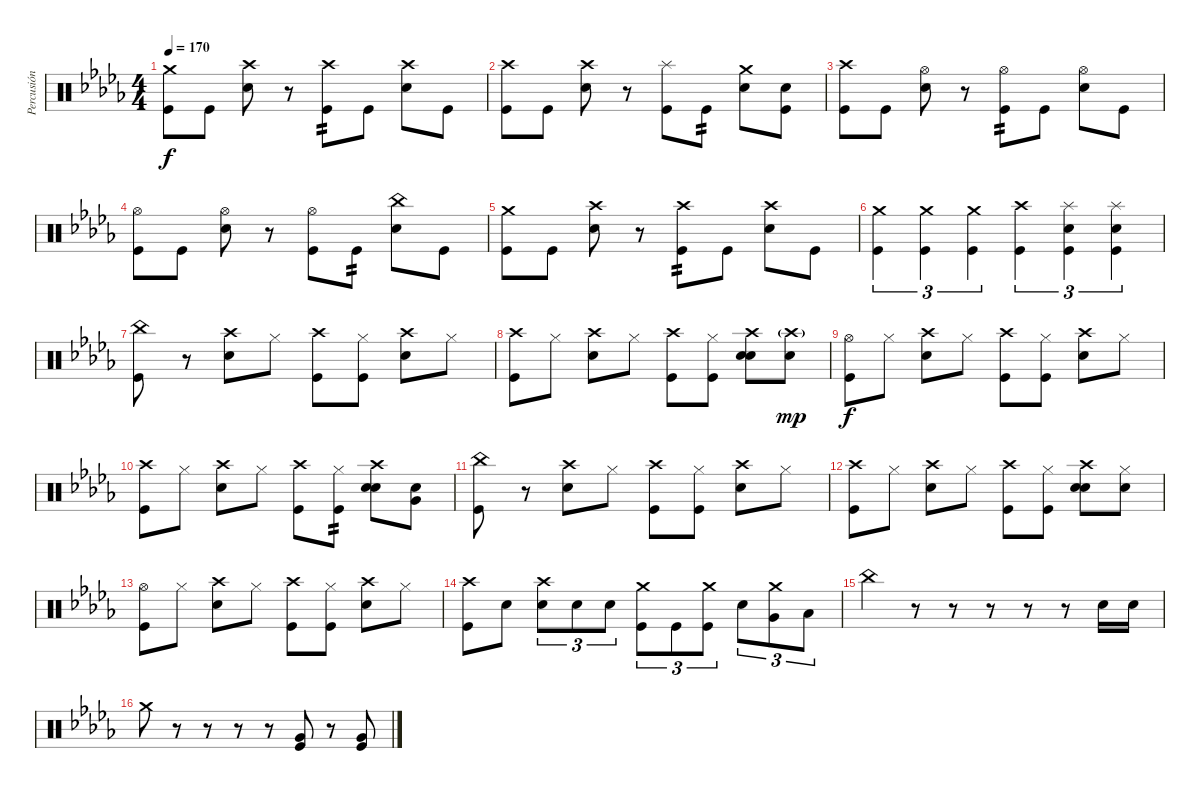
\track ("Percusión" "Percusión") {instrument percussion}
\staff {score}
\articulation defaults
\ts (4 4)
\tempo 170
\clef neutral
\ks db
("Crash medium (hit)" "Kick (hit)").8{dy f} "Kick (hit)".8 ("Crash high (hit)" "Electric Snare (hit)").8 r.8 ("Crash high (hit)" "Kick (hit)").8{tp 2} "Kick (hit)".8 ("Crash high (hit)" "Electric Snare (hit)").8 "Kick (hit)".8 |
("Crash high (hit)" "Kick (hit)").8 "Kick (hit)".8 ("Crash high (hit)" "Electric Snare (hit)").8 r.8 ("Splash (hit)" "Kick (hit)").8 "Kick (hit)".8{tp 2} ("Crash medium (hit)" "Electric Snare (hit)").8 ("Electric Snare (hit)" "Kick (hit)").8 |
("Crash high (hit)" "Kick (hit)").8 "Kick (hit)".8 ("Hi-Hat (open)" "Electric Snare (hit)").8 r.8 ("Hi-Hat (open)" "Kick (hit)").8{tp 2} "Kick (hit)".8 ("Hi-Hat (open)" "Electric Snare (hit)").8 "Kick (hit)".8 |
("Hi-Hat (open)" "Kick (hit)").8 "Kick (hit)".8 ("Hi-Hat (open)" "Electric Snare (hit)").8 r.8 ("Hi-Hat (open)" "Kick (hit)").8 "Kick (hit)".8{tp 2} ("China (hit)" "Electric Snare (hit)").8 "Kick (hit)".8 |
("Crash medium (hit)" "Kick (hit)").8 "Kick (hit)".8 ("Crash high (hit)" "Electric Snare (hit)").8 r.8 ("Crash high (hit)" "Kick (hit)").8{tp 2} "Kick (hit)".8 ("Crash high (hit)" "Electric Snare (hit)").8 "Kick (hit)".8 |
("Crash medium (hit)" "Kick (hit)").4{tu (3 2)} ("Crash medium (hit)" "Kick (hit)").4{tu (3 2)} ("Crash medium (hit)" "Kick (hit)").4{tu (3 2)} ("Crash high (hit)" "Kick (hit)").4{tu (3 2)} ("Splash (hit)" "Electric Snare (hit)" "Kick (hit)").4{tu (3 2)} ("Splash (hit)" "Electric Snare (hit)" "Kick (hit)").4{tu (3 2)} |
("China (hit)" "Kick (hit)").8 r.8 ("Crash high (hit)" "Electric Snare (hit)").8 "Hi-Hat (closed)".8 ("Crash high (hit)" "Kick (hit)").8 ("Hi-Hat (closed)" "Kick (hit)").8 ("Crash high (hit)" "Electric Snare (hit)").8 "Hi-Hat (closed)".8 |
("Crash high (hit)" "Kick (hit)").8 "Hi-Hat (closed)".8 ("Crash high (hit)" "Electric Snare (hit)").8 "Hi-Hat (closed)".8 ("Crash high (hit)" "Kick (hit)").8 ("Hi-Hat (closed)" "Kick (hit)").8 ("Crash high (hit)" "Electric Snare (hit)" "Hand Clap (hit)").8 ("Crash high (hit)"{g} "Hand Clap (hit)").8{dy mp} |
("Hi-Hat (open)" "Kick (hit)").8{dy f} "Hi-Hat (closed)".8 ("Crash high (hit)" "Electric Snare (hit)").8 "Hi-Hat (closed)".8 ("Crash high (hit)" "Kick (hit)").8 ("Hi-Hat (closed)" "Kick (hit)").8 ("Crash high (hit)" "Electric Snare (hit)").8 "Hi-Hat (closed)".8 |
("Crash high (hit)" "Kick (hit)").8 "Hi-Hat (closed)".8 ("Crash high (hit)" "Electric Snare (hit)").8 "Hi-Hat (closed)".8 ("Crash high (hit)" "Kick (hit)").8 ("Hi-Hat (closed)" "Kick (hit)").8{tp 2} ("Crash high (hit)" "Hand Clap (hit)" "Electric Snare (hit)").8 ("Hand Clap (hit)" "Very Low Tom (hit)").8 |
("China (hit)" "Kick (hit)").8 r.8 ("Crash high (hit)" "Electric Snare (hit)").8 "Hi-Hat (closed)".8 ("Crash high (hit)" "Kick (hit)").8 ("Hi-Hat (closed)" "Kick (hit)").8 ("Crash high (hit)" "Electric Snare (hit)").8 "Hi-Hat (closed)".8 |
("Crash high (hit)" "Kick (hit)").8 "Hi-Hat (closed)".8 ("Crash high (hit)" "Electric Snare (hit)").8 "Hi-Hat (closed)".8 ("Crash high (hit)" "Kick (hit)").8 ("Hi-Hat (closed)" "Kick (hit)").8 ("Crash high (hit)" "Hand Clap (hit)" "Electric Snare (hit)").8 ("Hi-Hat (closed)" "Hand Clap (hit)").8 |
("Hi-Hat (open)" "Kick (hit)").8 "Hi-Hat (closed)".8 ("Crash high (hit)" "Electric Snare (hit)").8 "Hi-Hat (closed)".8 ("Crash high (hit)" "Kick (hit)").8 ("Hi-Hat (closed)" "Kick (hit)").8 ("Crash high (hit)" "Electric Snare (hit)").8 "Hi-Hat (closed)".8 |
("Crash high (hit)" "Kick (hit)").8 "Electric Snare (hit)".8 ("Crash high (hit)" "Electric Snare (hit)").8{tu (3 2)} "Electric Snare (hit)".8{tu (3 2)} "Electric Snare (hit)".8{tu (3 2)} ("Crash medium (hit)" "Kick (hit)").8{tu (3 2)} "Kick (hit)".8{tu (3 2)} ("Crash medium (hit)" "Kick (hit)").8{tu (3 2)} "Electric Snare (hit)".8{tu (3 2)} ("Crash medium (hit)" "Very Low Tom (hit)").8{tu (3 2)} "Low Floor Tom (hit)".8{tu (3 2)} |
"China (hit)".4 r.8 r.8 r.8 r.8 r.8 "Electric Snare (hit)".16 "Electric Snare (hit)".16 |
"Crash medium (hit)".8 r.8 r.8 r.8 r.8 ("Very Low Tom (hit)" "Kick (hit)").8 r.8 ("Very Low Tom (hit)" "Kick (hit)").8
